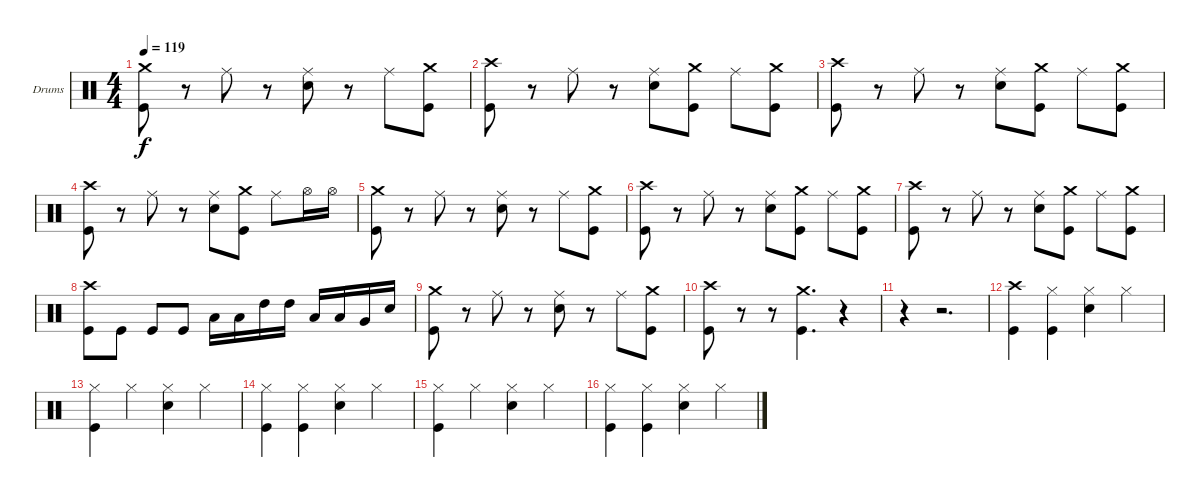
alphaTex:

\bracketExtendMode groupsimilarinstruments
\firstSystemTrackNameOrientation horizontal
\otherSystemsTrackNameOrientation horizontal
\track ("Drumkit" "Drums") {instrument percussion}
\staff {score}
\articulation defaults
\ts (4 4)
\tempo 119
\clef neutral
\ks c
("Crash medium (hit)" "Kick (hit)").8{dy f} r.8 "Ride (middle)".8 r.8 ("Ride (middle)" "Snare (hit) 2").8 r.8 "Ride (middle)".8 ("Crash medium (hit)" "Kick (hit)").8 |
("Crash high (hit)" "Kick (hit)").8 r.8 "Ride (middle)".8 r.8 ("Ride (middle)" "Snare (hit) 2").8 ("Crash medium (hit)" "Kick (hit)").8 "Ride (middle)".8 ("Crash medium (hit)" "Kick (hit)").8 |
("Crash high (hit)" "Kick (hit)").8 r.8 "Ride (middle)".8 r.8 ("Ride (middle)" "Snare (hit) 2").8 ("Crash medium (hit)" "Kick (hit)").8 "Ride (middle)".8 ("Crash medium (hit)" "Kick (hit)").8 |
("Crash high (hit)" "Kick (hit)").8 r.8 "Ride (middle)".8 r.8 ("Ride (middle)" "Snare (hit) 2").8 ("Crash medium (hit)" "Kick (hit)").8 "Ride (middle)".8 "Hi-Hat (open)".16 "Hi-Hat (open)".16 |
("Crash medium (hit)" "Kick (hit)").8 r.8 "Ride (middle)".8 r.8 ("Ride (middle)" "Snare (hit) 2").8 r.8 "Ride (middle)".8 ("Crash medium (hit)" "Kick (hit)").8 |
("Crash high (hit)" "Kick (hit)").8 r.8 "Ride (middle)".8 r.8 ("Ride (middle)" "Snare (hit) 2").8 ("Crash medium (hit)" "Kick (hit)").8 "Ride (middle)".8 ("Crash medium (hit)" "Kick (hit)").8 |
("Crash high (hit)" "Kick (hit)").8 r.8 "Ride (middle)".8 r.8 ("Ride (middle)" "Snare (hit) 2").8 ("Crash medium (hit)" "Kick (hit)").8 "Ride (middle)".8 ("Crash medium (hit)" "Kick (hit)").8 |
("Crash high (hit)" "Kick (hit)").8 "Kick (hit)".8 "Kick (hit)".8 "Kick (hit)".8 "Low Tom (hit)".16 "Low Tom (hit)".16 "High Tom (hit)".16 "High Tom (hit)".16 "Low Tom (hit)".16 "Low Tom (hit)".16 "Very Low Tom (hit)".16 "Snare (hit) 2".16 |
("Crash medium (hit)" "Kick (hit)").8 r.8 "Ride (middle)".8 r.8 ("Ride (middle)" "Snare (hit) 2").8 r.8 "Ride (middle)".8 ("Crash medium (hit)" "Kick (hit)").8 |
("Crash high (hit)" "Kick (hit)").8 r.8 r.8 ("Crash medium (hit)" "Kick (hit)").4{d} r.4 |
r.4 r.2{d} |
("Crash high (hit)" "Kick (hit)").4 ("Hi-Hat (closed)" "Kick (hit)").4 ("Hi-Hat (closed)" "Snare (hit) 2").4 "Hi-Hat (closed)".4 |
("Hi-Hat (closed)" "Kick (hit)").4 "Hi-Hat (closed)".4 ("Hi-Hat (closed)" "Snare (hit) 2").4 "Hi-Hat (closed)".4 |
("Hi-Hat (closed)" "Kick (hit)").4 ("Hi-Hat (closed)" "Kick (hit)").4 ("Hi-Hat (closed)" "Snare (hit) 2").4 "Hi-Hat (closed)".4 |
("Hi-Hat (closed)" "Kick (hit)").4 "Hi-Hat (closed)".4 ("Hi-Hat (closed)" "Snare (hit) 2").4 "Hi-Hat (closed)".4 |
("Hi-Hat (closed)" "Kick (hit)").4 ("Hi-Hat (closed)" "Kick (hit)").4 ("Hi-Hat (closed)" "Snare (hit) 2").4 "Hi-Hat (closed)".4
